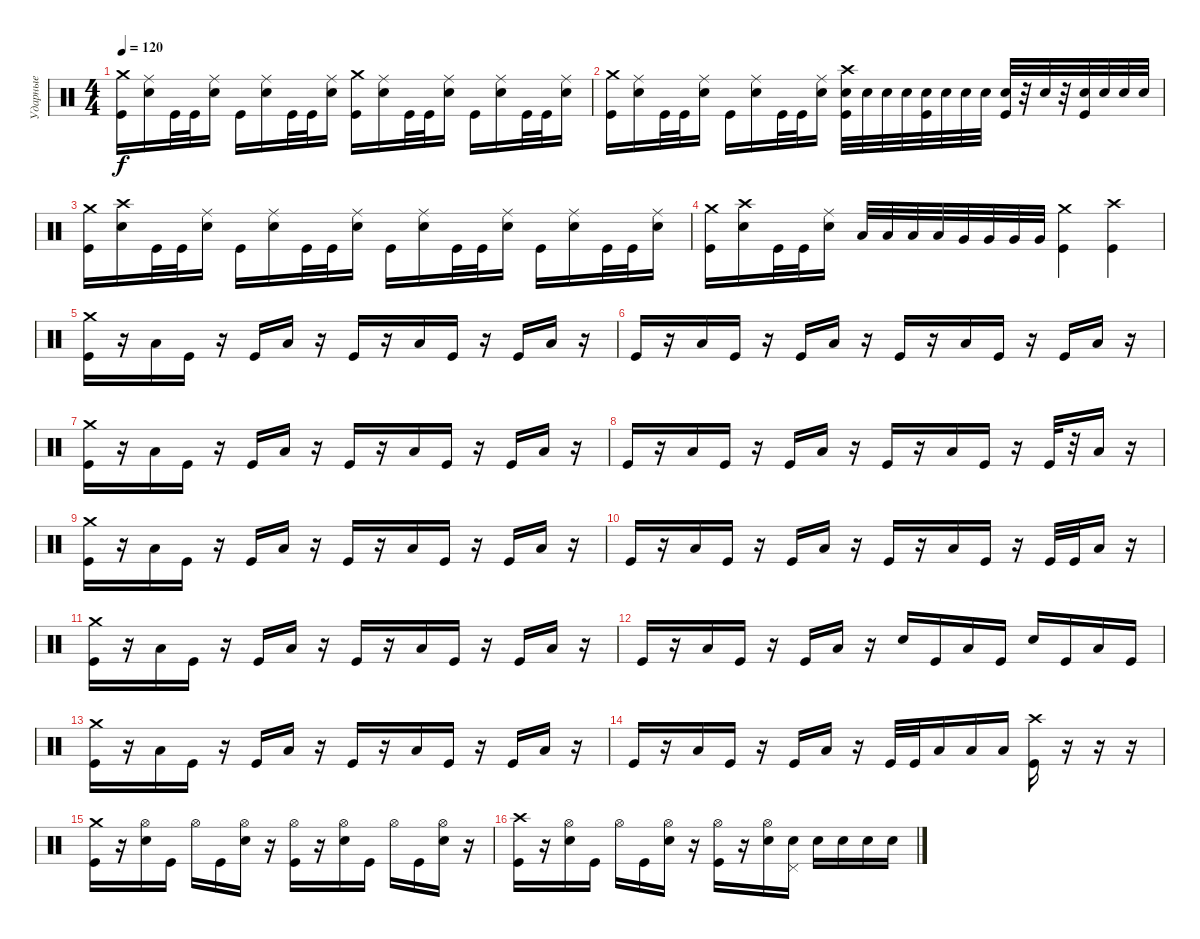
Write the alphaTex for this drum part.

\track ("Ударные" "Ударные") {solo instrument percussion}
\staff {score}
\articulation defaults
\ts (4 4)
\tempo 120
\clef neutral
\ks c
("Crash medium (hit)" "Kick (hit)").16{dy f} ("Ride (middle)" "Snare (hit) 2").16 "Kick (hit)".32 "Kick (hit)".32 ("Ride (middle)" "Snare (hit) 2").16 "Kick (hit)".16 ("Ride (middle)" "Snare (hit) 2").16 "Kick (hit)".32 "Kick (hit)".32 ("Ride (middle)" "Snare (hit) 2").16 ("Crash medium (hit)" "Kick (hit)").16 ("Ride (middle)" "Snare (hit) 2").16 "Kick (hit)".32 "Kick (hit)".32 ("Ride (middle)" "Snare (hit) 2").16 "Kick (hit)".16 ("Ride (middle)" "Snare (hit) 2").16 "Kick (hit)".32 "Kick (hit)".32 ("Ride (middle)" "Snare (hit) 2").16 |
("Crash medium (hit)" "Kick (hit)").16 ("Ride (middle)" "Snare (hit) 2").16 "Kick (hit)".32 "Kick (hit)".32 ("Ride (middle)" "Snare (hit) 2").16 "Kick (hit)".16 ("Ride (middle)" "Snare (hit) 2").16 "Kick (hit)".32 "Kick (hit)".32 ("Ride (middle)" "Snare (hit) 2").16 ("Crash high (hit)" "Kick (hit)" "Snare (hit) 2").32 "Snare (hit) 2".32 "Snare (hit) 2".32 "Snare (hit) 2".32 ("Kick (hit)" "Snare (hit) 2").32 "Snare (hit) 2".32 "Snare (hit) 2".32 "Snare (hit) 2".32 ("Kick (hit)" "Snare (hit) 2").32 r.32 "Snare (hit) 2".32 r.32 ("Kick (hit)" "Snare (hit) 2").32 "Snare (hit) 2".32 "Snare (hit) 2".32 "Snare (hit) 2".32 |
("Crash medium (hit)" "Kick (hit)").16 ("Crash high (hit)" "Snare (hit) 2").16 "Kick (hit)".32 "Kick (hit)".32 ("Ride (middle)" "Snare (hit) 2").16 "Kick (hit)".16 ("Ride (middle)" "Snare (hit) 2").16 "Kick (hit)".32 "Kick (hit)".32 ("Ride (middle)" "Snare (hit) 2").16 "Kick (hit)".16 ("Ride (middle)" "Snare (hit) 2").16 "Kick (hit)".32 "Kick (hit)".32 ("Ride (middle)" "Snare (hit) 2").16 "Kick (hit)".16 ("Ride (middle)" "Snare (hit) 2").16 "Kick (hit)".32 "Kick (hit)".32 ("Ride (middle)" "Snare (hit) 2").16 |
("Crash medium (hit)" "Kick (hit)").16 ("Crash high (hit)" "Snare (hit) 2").16 "Kick (hit)".32 "Kick (hit)".32 ("Ride (middle)" "Snare (hit) 2").16 "Low Tom (hit)".32 "Low Tom (hit)".32 "Low Tom (hit)".32 "Low Tom (hit)".32 "Very Low Tom (hit)".32 "Very Low Tom (hit)".32 "Very Low Tom (hit)".32 "Very Low Tom (hit)".32 ("Crash medium (hit)" "Kick (hit)").4 ("Crash high (hit)" "Kick (hit)").4 |
("Crash medium (hit)" "Kick (hit)").16 r.16 "Low Floor Tom (hit)".16 "Kick (hit)".16 r.16 "Kick (hit)".16 "Low Floor Tom (hit)".16 r.16 "Kick (hit)".16 r.16 "Low Floor Tom (hit)".16 "Kick (hit)".16 r.16 "Kick (hit)".16 "Low Floor Tom (hit)".16 r.16 |
"Kick (hit)".16 r.16 "Low Floor Tom (hit)".16 "Kick (hit)".16 r.16 "Kick (hit)".16 "Low Floor Tom (hit)".16 r.16 "Kick (hit)".16 r.16 "Low Floor Tom (hit)".16 "Kick (hit)".16 r.16 "Kick (hit)".16 "Low Floor Tom (hit)".16 r.16 |
("Crash medium (hit)" "Kick (hit)").16 r.16 "Low Floor Tom (hit)".16 "Kick (hit)".16 r.16 "Kick (hit)".16 "Low Floor Tom (hit)".16 r.16 "Kick (hit)".16 r.16 "Low Floor Tom (hit)".16 "Kick (hit)".16 r.16 "Kick (hit)".16 "Low Floor Tom (hit)".16 r.16 |
"Kick (hit)".16 r.16 "Low Floor Tom (hit)".16 "Kick (hit)".16 r.16 "Kick (hit)".16 "Low Floor Tom (hit)".16 r.16 "Kick (hit)".16 r.16 "Low Floor Tom (hit)".16 "Kick (hit)".16 r.16 "Kick (hit)".32 r.32 "Low Floor Tom (hit)".16 r.16 |
("Crash medium (hit)" "Kick (hit)").16 r.16 "Low Floor Tom (hit)".16 "Kick (hit)".16 r.16 "Kick (hit)".16 "Low Floor Tom (hit)".16 r.16 "Kick (hit)".16 r.16 "Low Floor Tom (hit)".16 "Kick (hit)".16 r.16 "Kick (hit)".16 "Low Floor Tom (hit)".16 r.16 |
"Kick (hit)".16 r.16 "Low Floor Tom (hit)".16 "Kick (hit)".16 r.16 "Kick (hit)".16 "Low Floor Tom (hit)".16 r.16 "Kick (hit)".16 r.16 "Low Floor Tom (hit)".16 "Kick (hit)".16 r.16 "Kick (hit)".32 "Kick (hit)".32 "Low Floor Tom (hit)".16 r.16 |
("Crash medium (hit)" "Kick (hit)").16 r.16 "Low Floor Tom (hit)".16 "Kick (hit)".16 r.16 "Kick (hit)".16 "Low Floor Tom (hit)".16 r.16 "Kick (hit)".16 r.16 "Low Floor Tom (hit)".16 "Kick (hit)".16 r.16 "Kick (hit)".16 "Low Floor Tom (hit)".16 r.16 |
"Kick (hit)".16 r.16 "Low Floor Tom (hit)".16 "Kick (hit)".16 r.16 "Kick (hit)".16 "Low Floor Tom (hit)".16 r.16 "Snare (hit) 2".16 "Kick (hit)".16 "Low Floor Tom (hit)".16 "Kick (hit)".16 "Snare (hit) 2".16 "Kick (hit)".16 "Low Floor Tom (hit)".16 "Kick (hit)".16 |
("Crash medium (hit)" "Kick (hit)").16 r.16 "Low Floor Tom (hit)".16 "Kick (hit)".16 r.16 "Kick (hit)".16 "Low Floor Tom (hit)".16 r.16 "Kick (hit)".16 r.16 "Low Floor Tom (hit)".16 "Kick (hit)".16 r.16 "Kick (hit)".16 "Low Floor Tom (hit)".16 r.16 |
"Kick (hit)".16 r.16 "Low Floor Tom (hit)".16 "Kick (hit)".16 r.16 "Kick (hit)".16 "Low Floor Tom (hit)".16 r.16 "Kick (hit)".32 "Kick (hit)".32 "Low Floor Tom (hit)".16 "Low Floor Tom (hit)".16 "Low Floor Tom (hit)".16 ("Crash high (hit)" "Kick (hit)").16 r.16 r.16 r.16 |
("Crash medium (hit)" "Kick (hit)").16 r.16 ("Hi-Hat (open)" "Snare (hit) 2").16 "Kick (hit)".16 "Hi-Hat (open)".16 "Kick (hit)".16 ("Hi-Hat (open)" "Snare (hit) 2").16 r.16 ("Hi-Hat (open)" "Kick (hit)").16 r.16 ("Hi-Hat (open)" "Snare (hit) 2").16 "Kick (hit)".16 "Hi-Hat (open)".16 "Kick (hit)".16 ("Hi-Hat (open)" "Snare (hit) 2").16 r.16 |
("Crash high (hit)" "Kick (hit)").16 r.16 ("Hi-Hat (open)" "Snare (hit) 2").16 "Kick (hit)".16 "Hi-Hat (open)".16 "Kick (hit)".16 ("Hi-Hat (open)" "Snare (hit) 2").16 r.16 ("Hi-Hat (open)" "Kick (hit)").16 r.16 ("Hi-Hat (open)" "Snare (hit) 2").16 ("Pedal Hi-Hat (hit)" "Snare (hit) 2").16 "Snare (hit) 2".16 "Snare (hit) 2".16 "Snare (hit) 2".16 "Snare (hit) 2".16
